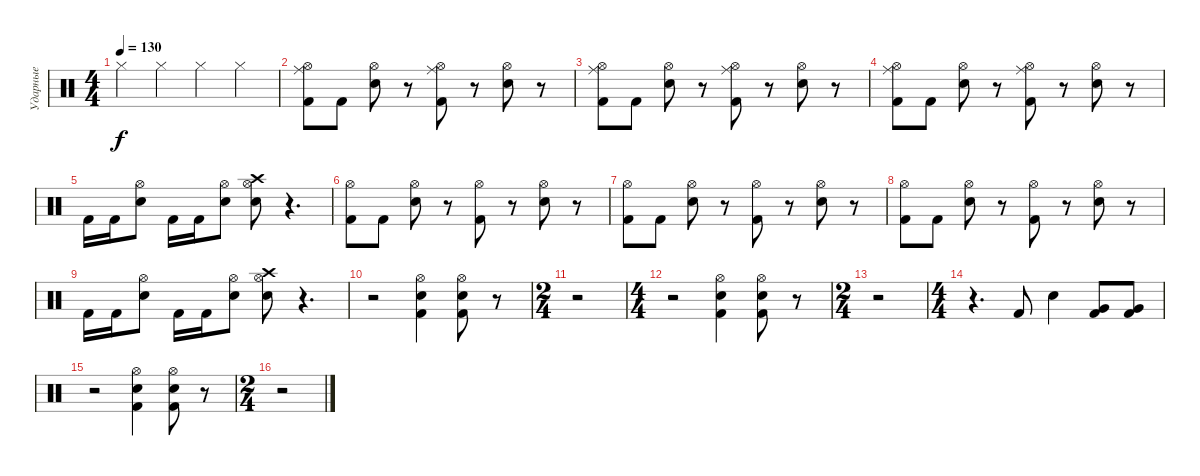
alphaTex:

\track ("Ударные" "Ударные") {instrument percussion}
\staff {score}
\articulation defaults
\ts (4 4)
\tempo 130
\clef neutral
\ks c "Hi-Hat (closed)".4{dy f} "Hi-Hat (closed)".4 "Hi-Hat (closed)".4 "Hi-Hat (closed)".4
|
("Hi-Hat (open)" "Ride (middle)" "Kick (hit) 2").8 "Kick (hit) 2".8 ("Hi-Hat (open)" "Snare (hit) 2").8 r.8 ("Hi-Hat (open)" "Ride (middle)" "Kick (hit) 2").8 r.8 ("Hi-Hat (open)" "Snare (hit) 2").8 r.8 |
("Hi-Hat (open)" "Ride (middle)" "Kick (hit) 2").8 "Kick (hit) 2".8 ("Hi-Hat (open)" "Snare (hit) 2").8 r.8 ("Hi-Hat (open)" "Ride (middle)" "Kick (hit) 2").8 r.8 ("Hi-Hat (open)" "Snare (hit) 2").8 r.8 |
("Hi-Hat (open)" "Ride (middle)" "Kick (hit) 2").8 "Kick (hit) 2".8 ("Hi-Hat (open)" "Snare (hit) 2").8 r.8 ("Hi-Hat (open)" "Ride (middle)" "Kick (hit) 2").8 r.8 ("Hi-Hat (open)" "Snare (hit) 2").8 r.8 |
"Kick (hit) 2".16 "Kick (hit) 2".16 ("Hi-Hat (open)" "Snare (hit) 2").8 "Kick (hit) 2".16 "Kick (hit) 2".16 ("Hi-Hat (open)" "Snare (hit) 2").8 ("Hi-Hat (open)" "Crash high (hit)" "Snare (hit) 2").8 r.4{d} |
("Hi-Hat (open)" "Kick (hit) 2").8 "Kick (hit) 2".8 ("Hi-Hat (open)" "Snare (hit) 2").8 r.8 ("Hi-Hat (open)" "Kick (hit) 2").8 r.8 ("Hi-Hat (open)" "Snare (hit) 2").8 r.8 |
("Hi-Hat (open)" "Kick (hit) 2").8 "Kick (hit) 2".8 ("Hi-Hat (open)" "Snare (hit) 2").8 r.8 ("Hi-Hat (open)" "Kick (hit) 2").8 r.8 ("Hi-Hat (open)" "Snare (hit) 2").8 r.8 |
("Hi-Hat (open)" "Kick (hit) 2").8 "Kick (hit) 2".8 ("Hi-Hat (open)" "Snare (hit) 2").8 r.8 ("Hi-Hat (open)" "Kick (hit) 2").8 r.8 ("Hi-Hat (open)" "Snare (hit) 2").8 r.8 |
"Kick (hit) 2".16 "Kick (hit) 2".16 ("Hi-Hat (open)" "Snare (hit) 2").8 "Kick (hit) 2".16 "Kick (hit) 2".16 ("Hi-Hat (open)" "Snare (hit) 2").8 ("Hi-Hat (open)" "Crash high (hit)" "Snare (hit) 2").8 r.4{d} |
r.2 ("Hi-Hat (open)" "Kick (hit) 2" "Snare (hit) 2").4 ("Hi-Hat (open)" "Kick (hit) 2" "Snare (hit) 2").8 r.8 |
\ts (2 4)
r.2 |
\ts (4 4)
r.2 ("Hi-Hat (open)" "Kick (hit) 2" "Snare (hit) 2").4 ("Hi-Hat (open)" "Kick (hit) 2" "Snare (hit) 2").8 r.8 |
\ts (2 4)
r.2 |
\ts (4 4)
r.4{d} "Kick (hit) 2".8 "Snare (hit) 2".4 ("Kick (hit) 2" "Very Low Tom (hit)").8 ("Kick (hit) 2" "Very Low Tom (hit)").8 |
r.2 ("Hi-Hat (open)" "Kick (hit) 2" "Snare (hit) 2").4 ("Hi-Hat (open)" "Kick (hit) 2" "Snare (hit) 2").8 r.8 |
\ts (2 4)
r.2
